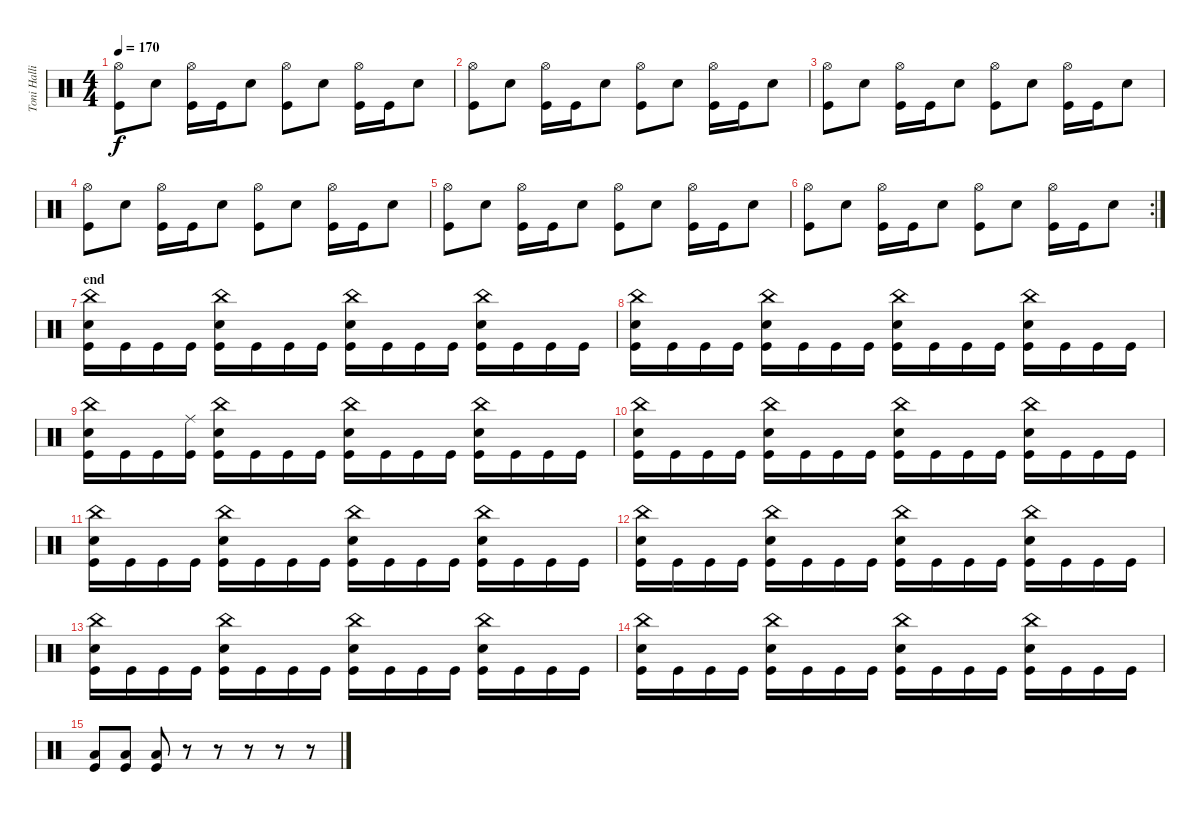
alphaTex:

\track ("Toni Hallio" "Toni Halli") {instrument percussion}
\staff {score}
\articulation defaults
\ts (4 4)
\tempo 170
\clef neutral
\ks c
("Hi-Hat (open)" "Kick (hit)").8{dy f} "Snare (hit) 2".8 ("Hi-Hat (open)" "Kick (hit)").16 "Kick (hit)".16 "Snare (hit) 2".8 ("Hi-Hat (open)" "Kick (hit)").8 "Snare (hit) 2".8 ("Hi-Hat (open)" "Kick (hit)").16 "Kick (hit)".16 "Snare (hit) 2".8 |
("Hi-Hat (open)" "Kick (hit)").8 "Snare (hit) 2".8 ("Hi-Hat (open)" "Kick (hit)").16 "Kick (hit)".16 "Snare (hit) 2".8 ("Hi-Hat (open)" "Kick (hit)").8 "Snare (hit) 2".8 ("Hi-Hat (open)" "Kick (hit)").16 "Kick (hit)".16 "Snare (hit) 2".8 |
("Hi-Hat (open)" "Kick (hit)").8 "Snare (hit) 2".8 ("Hi-Hat (open)" "Kick (hit)").16 "Kick (hit)".16 "Snare (hit) 2".8 ("Hi-Hat (open)" "Kick (hit)").8 "Snare (hit) 2".8 ("Hi-Hat (open)" "Kick (hit)").16 "Kick (hit)".16 "Snare (hit) 2".8 |
("Hi-Hat (open)" "Kick (hit)").8 "Snare (hit) 2".8 ("Hi-Hat (open)" "Kick (hit)").16 "Kick (hit)".16 "Snare (hit) 2".8 ("Hi-Hat (open)" "Kick (hit)").8 "Snare (hit) 2".8 ("Hi-Hat (open)" "Kick (hit)").16 "Kick (hit)".16 "Snare (hit) 2".8 |
("Hi-Hat (open)" "Kick (hit)").8 "Snare (hit) 2".8 ("Hi-Hat (open)" "Kick (hit)").16 "Kick (hit)".16 "Snare (hit) 2".8 ("Hi-Hat (open)" "Kick (hit)").8 "Snare (hit) 2".8 ("Hi-Hat (open)" "Kick (hit)").16 "Kick (hit)".16 "Snare (hit) 2".8 |
\rc 2
("Hi-Hat (open)" "Kick (hit)").8 "Snare (hit) 2".8 ("Hi-Hat (open)" "Kick (hit)").16 "Kick (hit)".16 "Snare (hit) 2".8 ("Hi-Hat (open)" "Kick (hit)").8 "Snare (hit) 2".8 ("Hi-Hat (open)" "Kick (hit)").16 "Kick (hit)".16 "Snare (hit) 2".8 |
\section ("" "end")
("China (hit)" "Snare (hit) 2" "Kick (hit)").16 "Kick (hit)".16 "Kick (hit)".16 "Kick (hit)".16 ("China (hit)" "Snare (hit) 2" "Kick (hit)").16 "Kick (hit)".16 "Kick (hit)".16 "Kick (hit)".16 ("China (hit)" "Snare (hit) 2" "Kick (hit)").16 "Kick (hit)".16 "Kick (hit)".16 "Kick (hit)".16 ("China (hit)" "Snare (hit) 2" "Kick (hit)").16 "Kick (hit)".16 "Kick (hit)".16 "Kick (hit)".16 |
("China (hit)" "Snare (hit) 2" "Kick (hit)").16 "Kick (hit)".16 "Kick (hit)".16 "Kick (hit)".16 ("China (hit)" "Snare (hit) 2" "Kick (hit)").16 "Kick (hit)".16 "Kick (hit)".16 "Kick (hit)".16 ("China (hit)" "Snare (hit) 2" "Kick (hit)").16 "Kick (hit)".16 "Kick (hit)".16 "Kick (hit)".16 ("China (hit)" "Snare (hit) 2" "Kick (hit)").16 "Kick (hit)".16 "Kick (hit)".16 "Kick (hit)".16 |
("China (hit)" "Snare (hit) 2" "Kick (hit)").16 "Kick (hit)".16 "Kick (hit)".16 ("Ride (middle)" "Kick (hit)").16 ("China (hit)" "Snare (hit) 2" "Kick (hit)").16 "Kick (hit)".16 "Kick (hit)".16 "Kick (hit)".16 ("China (hit)" "Snare (hit) 2" "Kick (hit)").16 "Kick (hit)".16 "Kick (hit)".16 "Kick (hit)".16 ("China (hit)" "Snare (hit) 2" "Kick (hit)").16 "Kick (hit)".16 "Kick (hit)".16 "Kick (hit)".16 |
("China (hit)" "Snare (hit) 2" "Kick (hit)").16 "Kick (hit)".16 "Kick (hit)".16 "Kick (hit)".16 ("China (hit)" "Snare (hit) 2" "Kick (hit)").16 "Kick (hit)".16 "Kick (hit)".16 "Kick (hit)".16 ("China (hit)" "Snare (hit) 2" "Kick (hit)").16 "Kick (hit)".16 "Kick (hit)".16 "Kick (hit)".16 ("China (hit)" "Snare (hit) 2" "Kick (hit)").16 "Kick (hit)".16 "Kick (hit)".16 "Kick (hit)".16 |
("China (hit)" "Snare (hit) 2" "Kick (hit)").16 "Kick (hit)".16 "Kick (hit)".16 "Kick (hit)".16 ("China (hit)" "Snare (hit) 2" "Kick (hit)").16 "Kick (hit)".16 "Kick (hit)".16 "Kick (hit)".16 ("China (hit)" "Snare (hit) 2" "Kick (hit)").16 "Kick (hit)".16 "Kick (hit)".16 "Kick (hit)".16 ("China (hit)" "Snare (hit) 2" "Kick (hit)").16 "Kick (hit)".16 "Kick (hit)".16 "Kick (hit)".16 |
("China (hit)" "Snare (hit) 2" "Kick (hit)").16 "Kick (hit)".16 "Kick (hit)".16 "Kick (hit)".16 ("China (hit)" "Snare (hit) 2" "Kick (hit)").16 "Kick (hit)".16 "Kick (hit)".16 "Kick (hit)".16 ("China (hit)" "Snare (hit) 2" "Kick (hit)").16 "Kick (hit)".16 "Kick (hit)".16 "Kick (hit)".16 ("China (hit)" "Snare (hit) 2" "Kick (hit)").16 "Kick (hit)".16 "Kick (hit)".16 "Kick (hit)".16 |
("China (hit)" "Snare (hit) 2" "Kick (hit)").16 "Kick (hit)".16 "Kick (hit)".16 "Kick (hit)".16 ("China (hit)" "Snare (hit) 2" "Kick (hit)").16 "Kick (hit)".16 "Kick (hit)".16 "Kick (hit)".16 ("China (hit)" "Snare (hit) 2" "Kick (hit)").16 "Kick (hit)".16 "Kick (hit)".16 "Kick (hit)".16 ("China (hit)" "Snare (hit) 2" "Kick (hit)").16 "Kick (hit)".16 "Kick (hit)".16 "Kick (hit)".16 |
("China (hit)" "Snare (hit) 2" "Kick (hit)").16 "Kick (hit)".16 "Kick (hit)".16 "Kick (hit)".16 ("China (hit)" "Snare (hit) 2" "Kick (hit)").16 "Kick (hit)".16 "Kick (hit)".16 "Kick (hit)".16 ("China (hit)" "Snare (hit) 2" "Kick (hit)").16 "Kick (hit)".16 "Kick (hit)".16 "Kick (hit)".16 ("China (hit)" "Snare (hit) 2" "Kick (hit)").16 "Kick (hit)".16 "Kick (hit)".16 "Kick (hit)".16 |
("Low Floor Tom (hit)" "Kick (hit)").8 ("Low Floor Tom (hit)" "Kick (hit)").8 ("Low Floor Tom (hit)" "Kick (hit)").8 r.8 r.8 r.8 r.8 r.8
